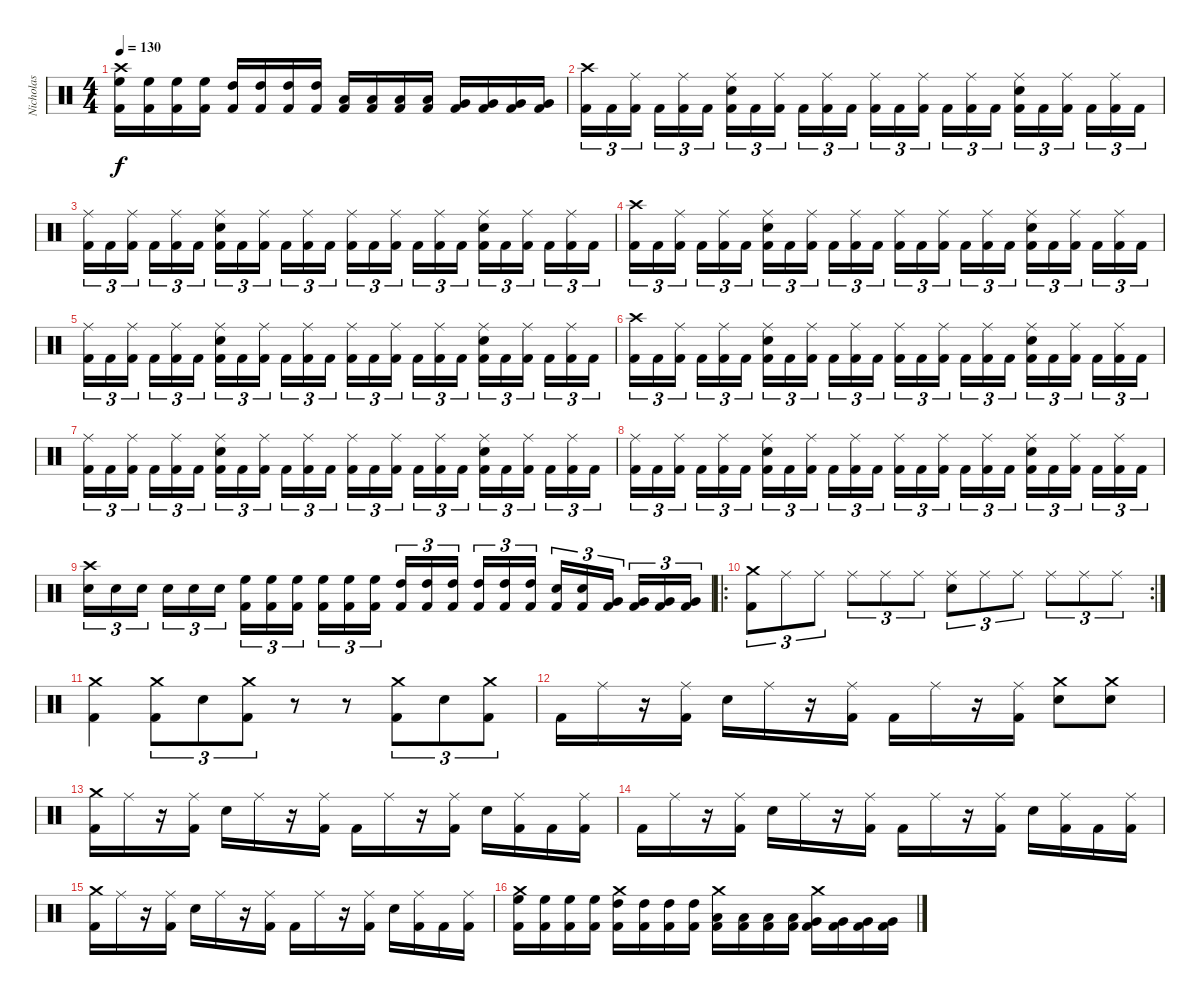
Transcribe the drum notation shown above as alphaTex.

\track ("Nicholas" "Nicholas") {instrument percussion}
\staff {score}
\articulation defaults
\ts (4 4)
\tempo 130
\clef neutral
\ks c
("Crash high (hit)" "High Floor Tom (hit)" "Kick (hit) 2").16{dy f} ("High Floor Tom (hit)" "Kick (hit) 2").16 ("High Floor Tom (hit)" "Kick (hit) 2").16 ("High Floor Tom (hit)" "Kick (hit) 2").16 ("High Tom (hit)" "Kick (hit) 2").16 ("High Tom (hit)" "Kick (hit) 2").16 ("High Tom (hit)" "Kick (hit) 2").16 ("High Tom (hit)" "Kick (hit) 2").16 ("Low Tom (hit)" "Kick (hit) 2").16 ("Low Tom (hit)" "Kick (hit) 2").16 ("Low Tom (hit)" "Kick (hit) 2").16 ("Low Tom (hit)" "Kick (hit) 2").16 ("Very Low Tom (hit)" "Kick (hit) 2").16 ("Very Low Tom (hit)" "Kick (hit) 2").16 ("Very Low Tom (hit)" "Kick (hit) 2").16 ("Very Low Tom (hit)" "Kick (hit) 2").16 |
("Crash high (hit)" "Kick (hit) 2").16{tu (3 2)} "Kick (hit) 2".16{tu (3 2)} ("Ride (middle)" "Kick (hit) 2").16{tu (3 2)} "Kick (hit) 2".16{tu (3 2)} ("Ride (middle)" "Kick (hit) 2").16{tu (3 2)} "Kick (hit) 2".16{tu (3 2)} ("Ride (middle)" "Snare (hit) 2" "Kick (hit) 2").16{tu (3 2)} "Kick (hit) 2".16{tu (3 2)} ("Ride (middle)" "Kick (hit) 2").16{tu (3 2)} "Kick (hit) 2".16{tu (3 2)} ("Ride (middle)" "Kick (hit) 2").16{tu (3 2)} "Kick (hit) 2".16{tu (3 2)} ("Ride (middle)" "Kick (hit) 2").16{tu (3 2)} "Kick (hit) 2".16{tu (3 2)} ("Ride (middle)" "Kick (hit) 2").16{tu (3 2)} "Kick (hit) 2".16{tu (3 2)} ("Ride (middle)" "Kick (hit) 2").16{tu (3 2)} "Kick (hit) 2".16{tu (3 2)} ("Ride (middle)" "Snare (hit) 2" "Kick (hit) 2").16{tu (3 2)} "Kick (hit) 2".16{tu (3 2)} ("Ride (middle)" "Kick (hit) 2").16{tu (3 2)} "Kick (hit) 2".16{tu (3 2)} ("Ride (middle)" "Kick (hit) 2").16{tu (3 2)} "Kick (hit) 2".16{tu (3 2)} |
("Ride (middle)" "Kick (hit) 2").16{tu (3 2)} "Kick (hit) 2".16{tu (3 2)} ("Ride (middle)" "Kick (hit) 2").16{tu (3 2)} "Kick (hit) 2".16{tu (3 2)} ("Ride (middle)" "Kick (hit) 2").16{tu (3 2)} "Kick (hit) 2".16{tu (3 2)} ("Ride (middle)" "Snare (hit) 2" "Kick (hit) 2").16{tu (3 2)} "Kick (hit) 2".16{tu (3 2)} ("Ride (middle)" "Kick (hit) 2").16{tu (3 2)} "Kick (hit) 2".16{tu (3 2)} ("Ride (middle)" "Kick (hit) 2").16{tu (3 2)} "Kick (hit) 2".16{tu (3 2)} ("Ride (middle)" "Kick (hit) 2").16{tu (3 2)} "Kick (hit) 2".16{tu (3 2)} ("Ride (middle)" "Kick (hit) 2").16{tu (3 2)} "Kick (hit) 2".16{tu (3 2)} ("Ride (middle)" "Kick (hit) 2").16{tu (3 2)} "Kick (hit) 2".16{tu (3 2)} ("Ride (middle)" "Snare (hit) 2" "Kick (hit) 2").16{tu (3 2)} "Kick (hit) 2".16{tu (3 2)} ("Ride (middle)" "Kick (hit) 2").16{tu (3 2)} "Kick (hit) 2".16{tu (3 2)} ("Ride (middle)" "Kick (hit) 2").16{tu (3 2)} "Kick (hit) 2".16{tu (3 2)} |
("Crash high (hit)" "Kick (hit) 2").16{tu (3 2)} "Kick (hit) 2".16{tu (3 2)} ("Ride (middle)" "Kick (hit) 2").16{tu (3 2)} "Kick (hit) 2".16{tu (3 2)} ("Ride (middle)" "Kick (hit) 2").16{tu (3 2)} "Kick (hit) 2".16{tu (3 2)} ("Ride (middle)" "Snare (hit) 2" "Kick (hit) 2").16{tu (3 2)} "Kick (hit) 2".16{tu (3 2)} ("Ride (middle)" "Kick (hit) 2").16{tu (3 2)} "Kick (hit) 2".16{tu (3 2)} ("Ride (middle)" "Kick (hit) 2").16{tu (3 2)} "Kick (hit) 2".16{tu (3 2)} ("Ride (middle)" "Kick (hit) 2").16{tu (3 2)} "Kick (hit) 2".16{tu (3 2)} ("Ride (middle)" "Kick (hit) 2").16{tu (3 2)} "Kick (hit) 2".16{tu (3 2)} ("Ride (middle)" "Kick (hit) 2").16{tu (3 2)} "Kick (hit) 2".16{tu (3 2)} ("Ride (middle)" "Snare (hit) 2" "Kick (hit) 2").16{tu (3 2)} "Kick (hit) 2".16{tu (3 2)} ("Ride (middle)" "Kick (hit) 2").16{tu (3 2)} "Kick (hit) 2".16{tu (3 2)} ("Ride (middle)" "Kick (hit) 2").16{tu (3 2)} "Kick (hit) 2".16{tu (3 2)} |
("Ride (middle)" "Kick (hit) 2").16{tu (3 2)} "Kick (hit) 2".16{tu (3 2)} ("Ride (middle)" "Kick (hit) 2").16{tu (3 2)} "Kick (hit) 2".16{tu (3 2)} ("Ride (middle)" "Kick (hit) 2").16{tu (3 2)} "Kick (hit) 2".16{tu (3 2)} ("Ride (middle)" "Snare (hit) 2" "Kick (hit) 2").16{tu (3 2)} "Kick (hit) 2".16{tu (3 2)} ("Ride (middle)" "Kick (hit) 2").16{tu (3 2)} "Kick (hit) 2".16{tu (3 2)} ("Ride (middle)" "Kick (hit) 2").16{tu (3 2)} "Kick (hit) 2".16{tu (3 2)} ("Ride (middle)" "Kick (hit) 2").16{tu (3 2)} "Kick (hit) 2".16{tu (3 2)} ("Ride (middle)" "Kick (hit) 2").16{tu (3 2)} "Kick (hit) 2".16{tu (3 2)} ("Ride (middle)" "Kick (hit) 2").16{tu (3 2)} "Kick (hit) 2".16{tu (3 2)} ("Ride (middle)" "Snare (hit) 2" "Kick (hit) 2").16{tu (3 2)} "Kick (hit) 2".16{tu (3 2)} ("Ride (middle)" "Kick (hit) 2").16{tu (3 2)} "Kick (hit) 2".16{tu (3 2)} ("Ride (middle)" "Kick (hit) 2").16{tu (3 2)} "Kick (hit) 2".16{tu (3 2)} |
("Crash high (hit)" "Kick (hit) 2").16{tu (3 2)} "Kick (hit) 2".16{tu (3 2)} ("Ride (middle)" "Kick (hit) 2").16{tu (3 2)} "Kick (hit) 2".16{tu (3 2)} ("Ride (middle)" "Kick (hit) 2").16{tu (3 2)} "Kick (hit) 2".16{tu (3 2)} ("Ride (middle)" "Snare (hit) 2" "Kick (hit) 2").16{tu (3 2)} "Kick (hit) 2".16{tu (3 2)} ("Ride (middle)" "Kick (hit) 2").16{tu (3 2)} "Kick (hit) 2".16{tu (3 2)} ("Ride (middle)" "Kick (hit) 2").16{tu (3 2)} "Kick (hit) 2".16{tu (3 2)} ("Ride (middle)" "Kick (hit) 2").16{tu (3 2)} "Kick (hit) 2".16{tu (3 2)} ("Ride (middle)" "Kick (hit) 2").16{tu (3 2)} "Kick (hit) 2".16{tu (3 2)} ("Ride (middle)" "Kick (hit) 2").16{tu (3 2)} "Kick (hit) 2".16{tu (3 2)} ("Ride (middle)" "Snare (hit) 2" "Kick (hit) 2").16{tu (3 2)} "Kick (hit) 2".16{tu (3 2)} ("Ride (middle)" "Kick (hit) 2").16{tu (3 2)} "Kick (hit) 2".16{tu (3 2)} ("Ride (middle)" "Kick (hit) 2").16{tu (3 2)} "Kick (hit) 2".16{tu (3 2)} |
("Ride (middle)" "Kick (hit) 2").16{tu (3 2)} "Kick (hit) 2".16{tu (3 2)} ("Ride (middle)" "Kick (hit) 2").16{tu (3 2)} "Kick (hit) 2".16{tu (3 2)} ("Ride (middle)" "Kick (hit) 2").16{tu (3 2)} "Kick (hit) 2".16{tu (3 2)} ("Ride (middle)" "Snare (hit) 2" "Kick (hit) 2").16{tu (3 2)} "Kick (hit) 2".16{tu (3 2)} ("Ride (middle)" "Kick (hit) 2").16{tu (3 2)} "Kick (hit) 2".16{tu (3 2)} ("Ride (middle)" "Kick (hit) 2").16{tu (3 2)} "Kick (hit) 2".16{tu (3 2)} ("Ride (middle)" "Kick (hit) 2").16{tu (3 2)} "Kick (hit) 2".16{tu (3 2)} ("Ride (middle)" "Kick (hit) 2").16{tu (3 2)} "Kick (hit) 2".16{tu (3 2)} ("Ride (middle)" "Kick (hit) 2").16{tu (3 2)} "Kick (hit) 2".16{tu (3 2)} ("Ride (middle)" "Snare (hit) 2" "Kick (hit) 2").16{tu (3 2)} "Kick (hit) 2".16{tu (3 2)} ("Ride (middle)" "Kick (hit) 2").16{tu (3 2)} "Kick (hit) 2".16{tu (3 2)} ("Ride (middle)" "Kick (hit) 2").16{tu (3 2)} "Kick (hit) 2".16{tu (3 2)} |
("Ride (middle)" "Kick (hit) 2").16{tu (3 2)} "Kick (hit) 2".16{tu (3 2)} ("Ride (middle)" "Kick (hit) 2").16{tu (3 2)} "Kick (hit) 2".16{tu (3 2)} ("Ride (middle)" "Kick (hit) 2").16{tu (3 2)} "Kick (hit) 2".16{tu (3 2)} ("Ride (middle)" "Snare (hit) 2" "Kick (hit) 2").16{tu (3 2)} "Kick (hit) 2".16{tu (3 2)} ("Ride (middle)" "Kick (hit) 2").16{tu (3 2)} "Kick (hit) 2".16{tu (3 2)} ("Ride (middle)" "Kick (hit) 2").16{tu (3 2)} "Kick (hit) 2".16{tu (3 2)} ("Ride (middle)" "Kick (hit) 2").16{tu (3 2)} "Kick (hit) 2".16{tu (3 2)} ("Ride (middle)" "Kick (hit) 2").16{tu (3 2)} "Kick (hit) 2".16{tu (3 2)} ("Ride (middle)" "Kick (hit) 2").16{tu (3 2)} "Kick (hit) 2".16{tu (3 2)} ("Ride (middle)" "Snare (hit) 2" "Kick (hit) 2").16{tu (3 2)} "Kick (hit) 2".16{tu (3 2)} ("Ride (middle)" "Kick (hit) 2").16{tu (3 2)} "Kick (hit) 2".16{tu (3 2)} ("Ride (middle)" "Kick (hit) 2").16{tu (3 2)} "Kick (hit) 2".16{tu (3 2)} |
("Crash high (hit)" "Snare (hit) 2").16{tu (3 2)} "Snare (hit) 2".16{tu (3 2)} "Snare (hit) 2".16{tu (3 2)} "Snare (hit) 2".16{tu (3 2)} "Snare (hit) 2".16{tu (3 2)} "Snare (hit) 2".16{tu (3 2)} ("High Floor Tom (hit)" "Kick (hit) 2").16{tu (3 2)} ("High Floor Tom (hit)" "Kick (hit) 2").16{tu (3 2)} ("High Floor Tom (hit)" "Kick (hit) 2").16{tu (3 2)} ("High Floor Tom (hit)" "Kick (hit) 2").16{tu (3 2)} ("High Floor Tom (hit)" "Kick (hit) 2").16{tu (3 2)} ("High Floor Tom (hit)" "Kick (hit) 2").16{tu (3 2)} ("High Tom (hit)" "Kick (hit) 2").16{tu (3 2)} ("High Tom (hit)" "Kick (hit) 2").16{tu (3 2)} ("High Tom (hit)" "Kick (hit) 2").16{tu (3 2)} ("High Tom (hit)" "Kick (hit) 2").16{tu (3 2)} ("High Tom (hit)" "Kick (hit) 2").16{tu (3 2)} ("High Tom (hit)" "Kick (hit) 2").16{tu (3 2)} ("Snare (hit) 2" "Kick (hit) 2").16{tu (3 2)} ("Snare (hit) 2" "Kick (hit) 2").16{tu (3 2)} ("Very Low Tom (hit)" "Kick (hit) 2").16{tu (3 2)} ("Very Low Tom (hit)" "Kick (hit) 2").16{tu (3 2)} ("Very Low Tom (hit)" "Kick (hit) 2").16{tu (3 2)} ("Very Low Tom (hit)" "Kick (hit) 2").16{tu (3 2)} |
\ro
\rc 2
("Crash medium (hit)" "Kick (hit) 2").8{tu (3 2)} "Ride (middle)".8{tu (3 2)} "Ride (middle)".8{tu (3 2)} "Ride (middle)".8{tu (3 2)} "Ride (middle)".8{tu (3 2)} "Ride (middle)".8{tu (3 2)} ("Ride (middle)" "Snare (hit) 2").8{tu (3 2)} "Ride (middle)".8{tu (3 2)} "Ride (middle)".8{tu (3 2)} "Ride (middle)".8{tu (3 2)} "Ride (middle)".8{tu (3 2)} "Ride (middle)".8{tu (3 2)} |
("Crash medium (hit)" "Kick (hit) 2").4 ("Crash medium (hit)" "Kick (hit) 2").8{tu (3 2)} "Snare (hit) 2".8{tu (3 2)} ("Crash medium (hit)" "Kick (hit) 2").8{tu (3 2)} r.8 r.8 ("Crash medium (hit)" "Kick (hit) 2").8{tu (3 2)} "Snare (hit) 2".8{tu (3 2)} ("Crash medium (hit)" "Kick (hit) 2").8{tu (3 2)} |
"Kick (hit) 2".16 "Ride (middle)".16 r.16 ("Ride (middle)" "Kick (hit) 2").16 "Snare (hit) 2".16 "Ride (middle)".16 r.16 ("Ride (middle)" "Kick (hit) 2").16 "Kick (hit) 2".16 "Ride (middle)".16 r.16 ("Ride (middle)" "Kick (hit) 2").16 ("Crash medium (hit)" "Snare (hit) 2").8 ("Crash medium (hit)" "Snare (hit) 2").8 |
("Crash medium (hit)" "Kick (hit) 2").16 "Ride (middle)".16 r.16 ("Ride (middle)" "Kick (hit) 2").16 "Snare (hit) 2".16 "Ride (middle)".16 r.16 ("Ride (middle)" "Kick (hit) 2").16 "Kick (hit) 2".16 "Ride (middle)".16 r.16 ("Ride (middle)" "Kick (hit) 2").16 "Snare (hit) 2".16 ("Ride (middle)" "Kick (hit) 2").16 "Kick (hit) 2".16 ("Ride (middle)" "Kick (hit) 2").16 |
"Kick (hit) 2".16 "Ride (middle)".16 r.16 ("Ride (middle)" "Kick (hit) 2").16 "Snare (hit) 2".16 "Ride (middle)".16 r.16 ("Ride (middle)" "Kick (hit) 2").16 "Kick (hit) 2".16 "Ride (middle)".16 r.16 ("Ride (middle)" "Kick (hit) 2").16 "Snare (hit) 2".16 ("Ride (middle)" "Kick (hit) 2").16 "Kick (hit) 2".16 ("Ride (middle)" "Kick (hit) 2").16 |
("Crash medium (hit)" "Kick (hit) 2").16 "Ride (middle)".16 r.16 ("Ride (middle)" "Kick (hit) 2").16 "Snare (hit) 2".16 "Ride (middle)".16 r.16 ("Ride (middle)" "Kick (hit) 2").16 "Kick (hit) 2".16 "Ride (middle)".16 r.16 ("Ride (middle)" "Kick (hit) 2").16 "Snare (hit) 2".16 ("Ride (middle)" "Kick (hit) 2").16 "Kick (hit) 2".16 ("Ride (middle)" "Kick (hit) 2").16 |
("Crash medium (hit)" "High Floor Tom (hit)" "Kick (hit) 2").16 ("High Floor Tom (hit)" "Kick (hit) 2").16 ("High Floor Tom (hit)" "Kick (hit) 2").16 ("High Floor Tom (hit)" "Kick (hit) 2").16 ("Crash medium (hit)" "High Tom (hit)" "Kick (hit) 2").16 ("High Tom (hit)" "Kick (hit) 2").16 ("High Tom (hit)" "Kick (hit) 2").16 ("High Tom (hit)" "Kick (hit) 2").16 ("Crash medium (hit)" "Low Tom (hit)" "Kick (hit) 2").16 ("Low Tom (hit)" "Kick (hit) 2").16 ("Low Tom (hit)" "Kick (hit) 2").16 ("Low Tom (hit)" "Kick (hit) 2").16 ("Crash medium (hit)" "Very Low Tom (hit)" "Kick (hit) 2").16 ("Very Low Tom (hit)" "Kick (hit) 2").16 ("Very Low Tom (hit)" "Kick (hit) 2").16 ("Very Low Tom (hit)" "Kick (hit) 2").16
